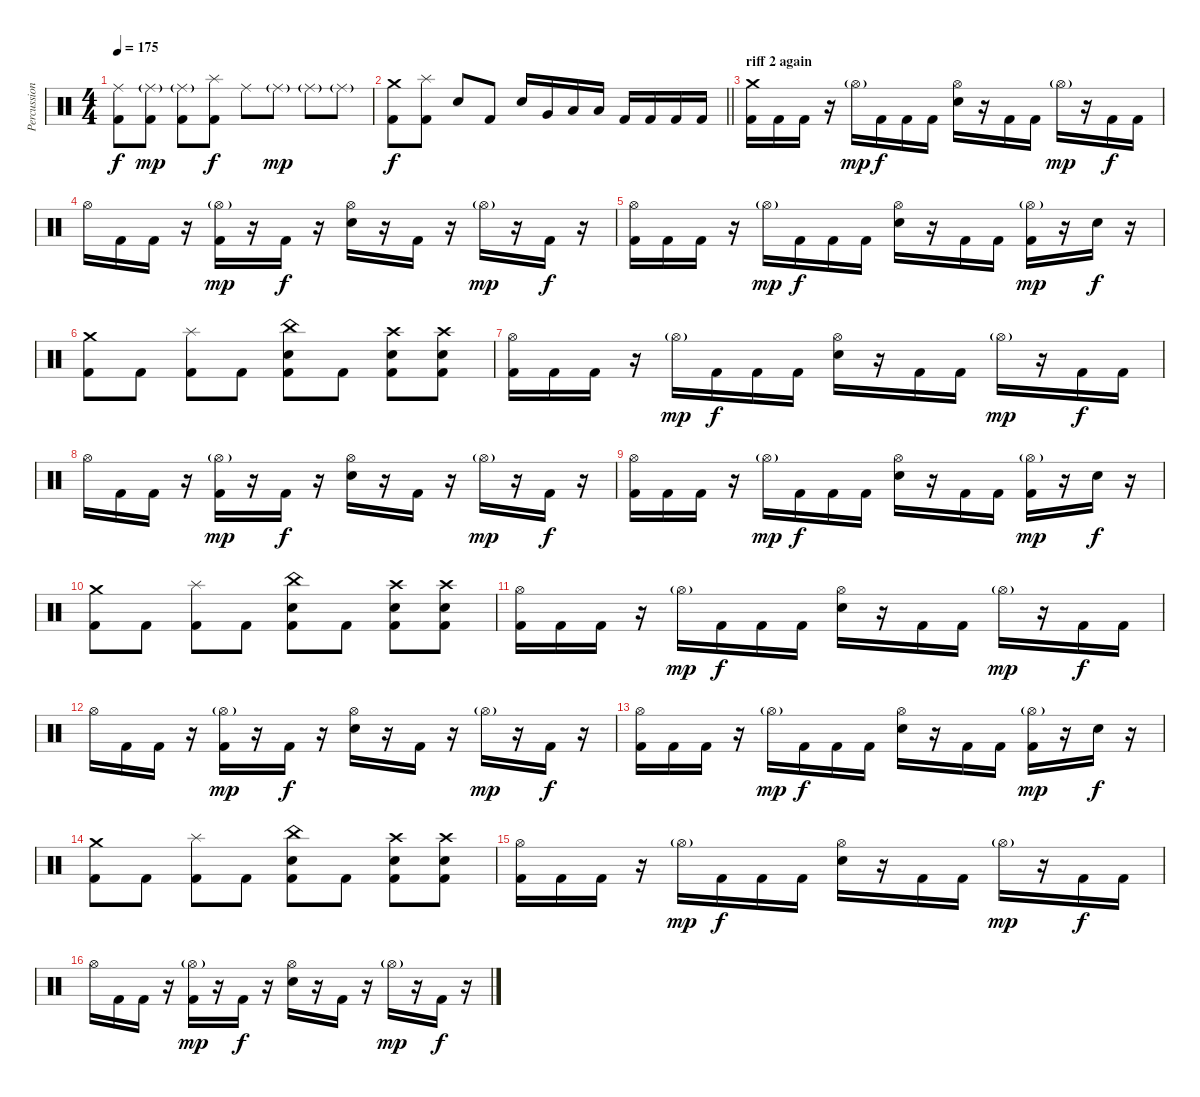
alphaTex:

\track ("Percussion" "Percussion") {instrument percussion}
\staff {score}
\articulation defaults
\ts (4 4)
\tempo 175
\clef neutral
\ks c
("Ride (middle)" "Kick (hit) 2").8{dy f} ("Ride (middle)"{g} "Kick (hit) 2").8{dy mp} ("Ride (middle)"{g} "Kick (hit) 2").8 ("Splash (hit)" "Kick (hit) 2").8{dy f} "Ride (middle)".8 "Ride (middle)"{g}.8{dy mp} "Ride (middle)"{g}.8 "Ride (middle)"{g}.8 |
\barLineRight lightlight
("Crash medium (hit)" "Kick (hit) 2").8{dy f} ("Splash (hit)" "Kick (hit) 2").8 "Electric Snare (hit)".8 "Kick (hit) 2".8 "Electric Snare (hit)".16 "Very Low Tom (hit)".16 "Low Floor Tom (hit)".16 "Low Floor Tom (hit)".16 "Kick (hit) 2".16 "Kick (hit) 2".16 "Kick (hit) 2".16 "Kick (hit) 2".16 |
\section ("" "riff 2 again")
("Crash medium (hit)" "Kick (hit) 2").16 "Kick (hit) 2".16 "Kick (hit) 2".16 r.16 "Hi-Hat (open)"{g}.16{dy mp} "Kick (hit) 2".16{dy f} "Kick (hit) 2".16 "Kick (hit) 2".16 ("Hi-Hat (open)" "Electric Snare (hit)").16 r.16 "Kick (hit) 2".16 "Kick (hit) 2".16 "Hi-Hat (open)"{g}.16{dy mp} r.16 "Kick (hit) 2".16{dy f} "Kick (hit) 2".16 |
"Hi-Hat (open)".16 "Kick (hit) 2".16 "Kick (hit) 2".16 r.16 ("Hi-Hat (open)"{g} "Kick (hit) 2").16{dy mp} r.16 "Kick (hit) 2".16{dy f} r.16 ("Hi-Hat (open)" "Electric Snare (hit)").16 r.16 "Kick (hit) 2".16 r.16 "Hi-Hat (open)"{g}.16{dy mp} r.16 "Kick (hit) 2".16{dy f} r.16 |
("Hi-Hat (open)" "Kick (hit) 2").16 "Kick (hit) 2".16 "Kick (hit) 2".16 r.16 "Hi-Hat (open)"{g}.16{dy mp} "Kick (hit) 2".16{dy f} "Kick (hit) 2".16 "Kick (hit) 2".16 ("Hi-Hat (open)" "Electric Snare (hit)").16 r.16 "Kick (hit) 2".16 "Kick (hit) 2".16 ("Hi-Hat (open)"{g} "Kick (hit) 2").16{dy mp} r.16 "Electric Snare (hit)".16{dy f} r.16 |
("Crash medium (hit)" "Kick (hit) 2").8 "Kick (hit) 2".8 ("Splash (hit)" "Kick (hit) 2").8 "Kick (hit) 2".8 ("China (hit)" "Electric Snare (hit)" "Kick (hit) 2").8 "Kick (hit) 2".8 ("Crash high (hit)" "Electric Snare (hit)" "Kick (hit) 2").8 ("Crash high (hit)" "Electric Snare (hit)" "Kick (hit) 2").8 |
("Hi-Hat (open)" "Kick (hit) 2").16 "Kick (hit) 2".16 "Kick (hit) 2".16 r.16 "Hi-Hat (open)"{g}.16{dy mp} "Kick (hit) 2".16{dy f} "Kick (hit) 2".16 "Kick (hit) 2".16 ("Hi-Hat (open)" "Electric Snare (hit)").16 r.16 "Kick (hit) 2".16 "Kick (hit) 2".16 "Hi-Hat (open)"{g}.16{dy mp} r.16 "Kick (hit) 2".16{dy f} "Kick (hit) 2".16 |
"Hi-Hat (open)".16 "Kick (hit) 2".16 "Kick (hit) 2".16 r.16 ("Hi-Hat (open)"{g} "Kick (hit) 2").16{dy mp} r.16 "Kick (hit) 2".16{dy f} r.16 ("Hi-Hat (open)" "Electric Snare (hit)").16 r.16 "Kick (hit) 2".16 r.16 "Hi-Hat (open)"{g}.16{dy mp} r.16 "Kick (hit) 2".16{dy f} r.16 |
("Hi-Hat (open)" "Kick (hit) 2").16 "Kick (hit) 2".16 "Kick (hit) 2".16 r.16 "Hi-Hat (open)"{g}.16{dy mp} "Kick (hit) 2".16{dy f} "Kick (hit) 2".16 "Kick (hit) 2".16 ("Hi-Hat (open)" "Electric Snare (hit)").16 r.16 "Kick (hit) 2".16 "Kick (hit) 2".16 ("Hi-Hat (open)"{g} "Kick (hit) 2").16{dy mp} r.16 "Electric Snare (hit)".16{dy f} r.16 |
("Crash medium (hit)" "Kick (hit) 2").8 "Kick (hit) 2".8 ("Splash (hit)" "Kick (hit) 2").8 "Kick (hit) 2".8 ("China (hit)" "Electric Snare (hit)" "Kick (hit) 2").8 "Kick (hit) 2".8 ("Crash high (hit)" "Electric Snare (hit)" "Kick (hit) 2").8 ("Crash high (hit)" "Electric Snare (hit)" "Kick (hit) 2").8 |
("Hi-Hat (open)" "Kick (hit) 2").16 "Kick (hit) 2".16 "Kick (hit) 2".16 r.16 "Hi-Hat (open)"{g}.16{dy mp} "Kick (hit) 2".16{dy f} "Kick (hit) 2".16 "Kick (hit) 2".16 ("Hi-Hat (open)" "Electric Snare (hit)").16 r.16 "Kick (hit) 2".16 "Kick (hit) 2".16 "Hi-Hat (open)"{g}.16{dy mp} r.16 "Kick (hit) 2".16{dy f} "Kick (hit) 2".16 |
"Hi-Hat (open)".16 "Kick (hit) 2".16 "Kick (hit) 2".16 r.16 ("Hi-Hat (open)"{g} "Kick (hit) 2").16{dy mp} r.16 "Kick (hit) 2".16{dy f} r.16 ("Hi-Hat (open)" "Electric Snare (hit)").16 r.16 "Kick (hit) 2".16 r.16 "Hi-Hat (open)"{g}.16{dy mp} r.16 "Kick (hit) 2".16{dy f} r.16 |
("Hi-Hat (open)" "Kick (hit) 2").16 "Kick (hit) 2".16 "Kick (hit) 2".16 r.16 "Hi-Hat (open)"{g}.16{dy mp} "Kick (hit) 2".16{dy f} "Kick (hit) 2".16 "Kick (hit) 2".16 ("Hi-Hat (open)" "Electric Snare (hit)").16 r.16 "Kick (hit) 2".16 "Kick (hit) 2".16 ("Hi-Hat (open)"{g} "Kick (hit) 2").16{dy mp} r.16 "Electric Snare (hit)".16{dy f} r.16 |
("Crash medium (hit)" "Kick (hit) 2").8 "Kick (hit) 2".8 ("Splash (hit)" "Kick (hit) 2").8 "Kick (hit) 2".8 ("China (hit)" "Electric Snare (hit)" "Kick (hit) 2").8 "Kick (hit) 2".8 ("Crash high (hit)" "Electric Snare (hit)" "Kick (hit) 2").8 ("Crash high (hit)" "Electric Snare (hit)" "Kick (hit) 2").8 |
("Hi-Hat (open)" "Kick (hit) 2").16 "Kick (hit) 2".16 "Kick (hit) 2".16 r.16 "Hi-Hat (open)"{g}.16{dy mp} "Kick (hit) 2".16{dy f} "Kick (hit) 2".16 "Kick (hit) 2".16 ("Hi-Hat (open)" "Electric Snare (hit)").16 r.16 "Kick (hit) 2".16 "Kick (hit) 2".16 "Hi-Hat (open)"{g}.16{dy mp} r.16 "Kick (hit) 2".16{dy f} "Kick (hit) 2".16 |
"Hi-Hat (open)".16 "Kick (hit) 2".16 "Kick (hit) 2".16 r.16 ("Hi-Hat (open)"{g} "Kick (hit) 2").16{dy mp} r.16 "Kick (hit) 2".16{dy f} r.16 ("Hi-Hat (open)" "Electric Snare (hit)").16 r.16 "Kick (hit) 2".16 r.16 "Hi-Hat (open)"{g}.16{dy mp} r.16 "Kick (hit) 2".16{dy f} r.16
